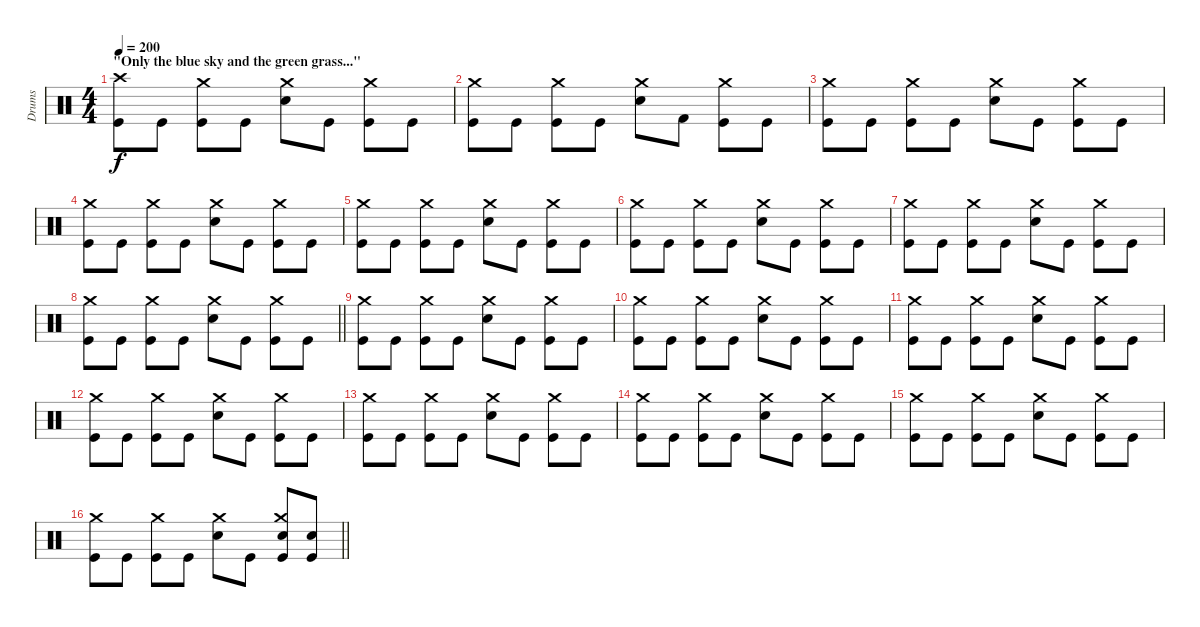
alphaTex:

\track ("Drums" "Drums") {instrument percussion}
\staff {score}
\articulation defaults
\ts (4 4)
\section ("" "\"Only the blue sky and the green grass...\"")
\tempo 200
\clef neutral
\ks c
("Crash high (hit)" "Kick (hit)").8{dy f} "Kick (hit)".8 ("Crash medium (hit)" "Kick (hit)").8 "Kick (hit)".8 ("Crash medium (hit)" "Snare (hit) 2").8 "Kick (hit)".8 ("Crash medium (hit)" "Kick (hit)").8 "Kick (hit)".8 |
("Crash medium (hit)" "Kick (hit)").8 "Kick (hit)".8 ("Crash medium (hit)" "Kick (hit)").8 "Kick (hit)".8 ("Crash medium (hit)" "Snare (hit) 2").8 "Kick (hit) 2".8 ("Crash medium (hit)" "Kick (hit)").8 "Kick (hit)".8 |
("Crash medium (hit)" "Kick (hit)").8 "Kick (hit)".8 ("Crash medium (hit)" "Kick (hit)").8 "Kick (hit)".8 ("Crash medium (hit)" "Snare (hit) 2").8 "Kick (hit)".8 ("Crash medium (hit)" "Kick (hit)").8 "Kick (hit)".8 |
("Crash medium (hit)" "Kick (hit)").8 "Kick (hit)".8 ("Crash medium (hit)" "Kick (hit)").8 "Kick (hit)".8 ("Crash medium (hit)" "Snare (hit) 2").8 "Kick (hit)".8 ("Crash medium (hit)" "Kick (hit)").8 "Kick (hit)".8 |
("Crash medium (hit)" "Kick (hit)").8 "Kick (hit)".8 ("Crash medium (hit)" "Kick (hit)").8 "Kick (hit)".8 ("Crash medium (hit)" "Snare (hit) 2").8 "Kick (hit)".8 ("Crash medium (hit)" "Kick (hit)").8 "Kick (hit)".8 |
("Crash medium (hit)" "Kick (hit)").8 "Kick (hit)".8 ("Crash medium (hit)" "Kick (hit)").8 "Kick (hit)".8 ("Crash medium (hit)" "Snare (hit) 2").8 "Kick (hit)".8 ("Crash medium (hit)" "Kick (hit)").8 "Kick (hit)".8 |
("Crash medium (hit)" "Kick (hit)").8 "Kick (hit)".8 ("Crash medium (hit)" "Kick (hit)").8 "Kick (hit)".8 ("Crash medium (hit)" "Snare (hit) 2").8 "Kick (hit)".8 ("Crash medium (hit)" "Kick (hit)").8 "Kick (hit)".8 |
\barLineRight lightlight
("Crash medium (hit)" "Kick (hit)").8 "Kick (hit)".8 ("Crash medium (hit)" "Kick (hit)").8 "Kick (hit)".8 ("Crash medium (hit)" "Snare (hit) 2").8 "Kick (hit)".8 ("Crash medium (hit)" "Kick (hit)").8 "Kick (hit)".8 |
("Crash medium (hit)" "Kick (hit)").8 "Kick (hit)".8 ("Crash medium (hit)" "Kick (hit)").8 "Kick (hit)".8 ("Crash medium (hit)" "Snare (hit) 2").8 "Kick (hit)".8 ("Crash medium (hit)" "Kick (hit)").8 "Kick (hit)".8 |
("Crash medium (hit)" "Kick (hit)").8 "Kick (hit)".8 ("Crash medium (hit)" "Kick (hit)").8 "Kick (hit)".8 ("Crash medium (hit)" "Snare (hit) 2").8 "Kick (hit)".8 ("Crash medium (hit)" "Kick (hit)").8 "Kick (hit)".8 |
("Crash medium (hit)" "Kick (hit)").8 "Kick (hit)".8 ("Crash medium (hit)" "Kick (hit)").8 "Kick (hit)".8 ("Crash medium (hit)" "Snare (hit) 2").8 "Kick (hit)".8 ("Crash medium (hit)" "Kick (hit)").8 "Kick (hit)".8 |
("Crash medium (hit)" "Kick (hit)").8 "Kick (hit)".8 ("Crash medium (hit)" "Kick (hit)").8 "Kick (hit)".8 ("Crash medium (hit)" "Snare (hit) 2").8 "Kick (hit)".8 ("Crash medium (hit)" "Kick (hit)").8 "Kick (hit)".8 |
("Crash medium (hit)" "Kick (hit)").8 "Kick (hit)".8 ("Crash medium (hit)" "Kick (hit)").8 "Kick (hit)".8 ("Crash medium (hit)" "Snare (hit) 2").8 "Kick (hit)".8 ("Crash medium (hit)" "Kick (hit)").8 "Kick (hit)".8 |
("Crash medium (hit)" "Kick (hit)").8 "Kick (hit)".8 ("Crash medium (hit)" "Kick (hit)").8 "Kick (hit)".8 ("Crash medium (hit)" "Snare (hit) 2").8 "Kick (hit)".8 ("Crash medium (hit)" "Kick (hit)").8 "Kick (hit)".8 |
("Crash medium (hit)" "Kick (hit)").8 "Kick (hit)".8 ("Crash medium (hit)" "Kick (hit)").8 "Kick (hit)".8 ("Crash medium (hit)" "Snare (hit) 2").8 "Kick (hit)".8 ("Crash medium (hit)" "Kick (hit)").8 "Kick (hit)".8 |
\barLineRight lightlight
("Crash medium (hit)" "Kick (hit)").8 "Kick (hit)".8 ("Crash medium (hit)" "Kick (hit)").8 "Kick (hit)".8 ("Crash medium (hit)" "Snare (hit) 2").8 "Kick (hit)".8 ("Crash medium (hit)" "Snare (hit) 2" "Kick (hit)").8 ("Snare (hit) 2" "Kick (hit)").8
